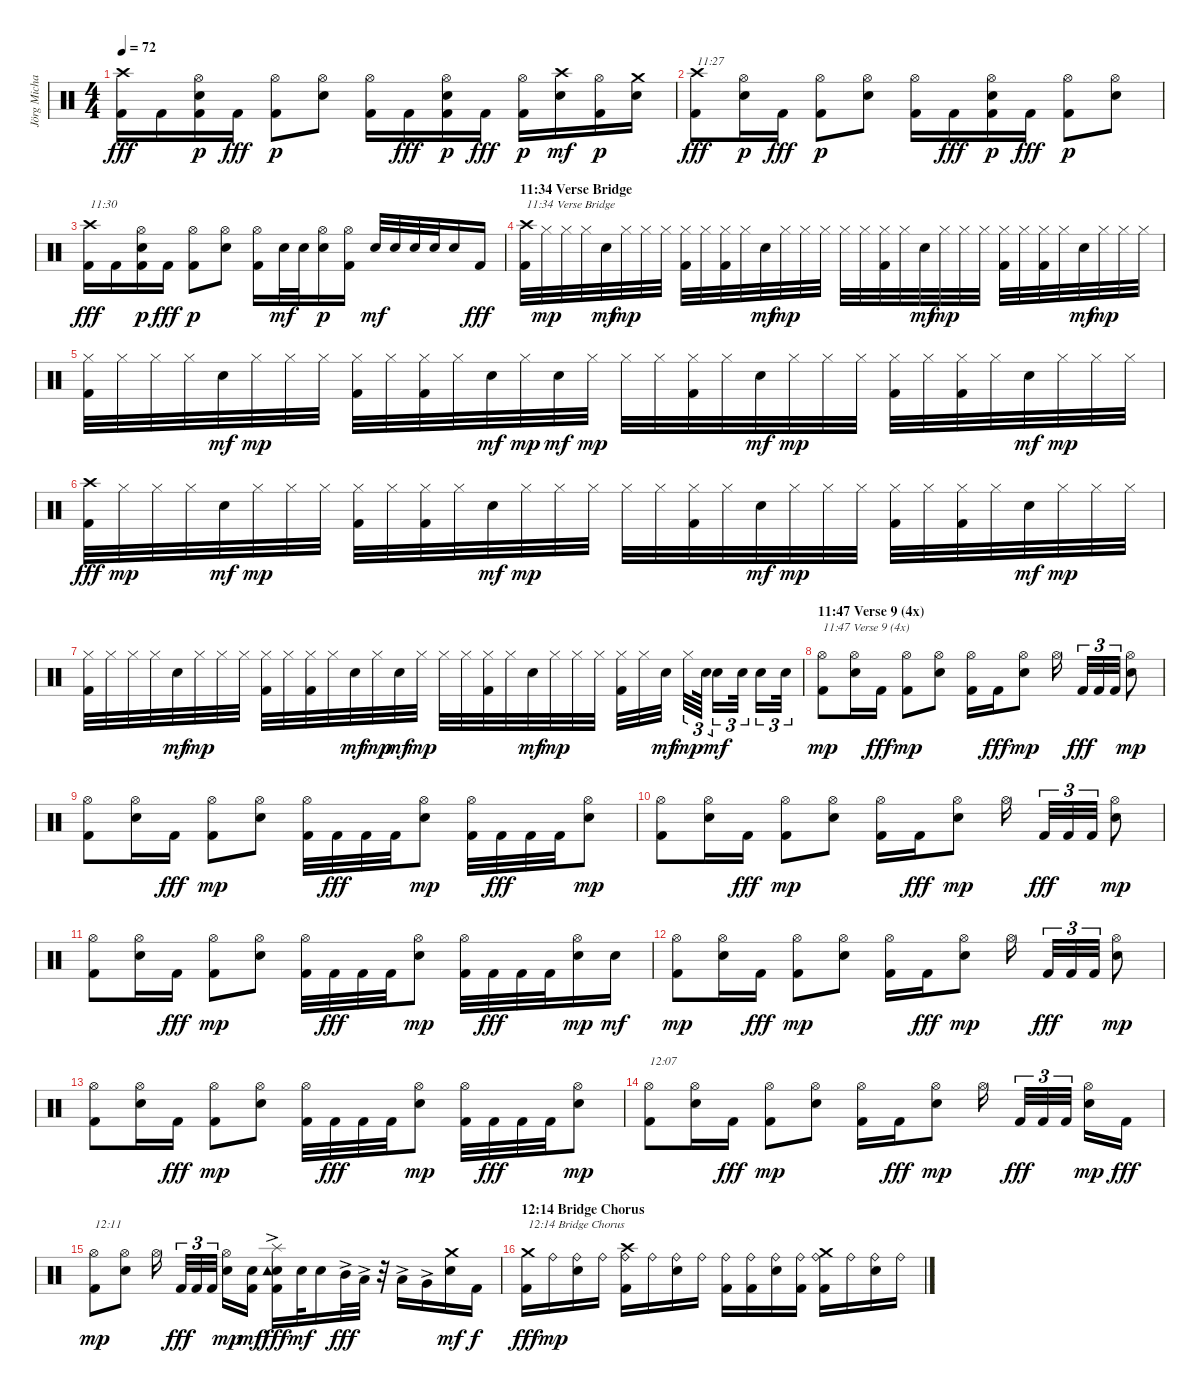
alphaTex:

\track ("Jörg Michael" "Jörg Micha") {instrument percussion}
\staff {score}
\articulation defaults
\ts (4 4)
\tempo 72
\clef neutral
\ks c
("Kick (hit) 2" "Crash high (hit)").16{dy fff} "Kick (hit) 2".16 ("Kick (hit) 2" "Snare (hit) 2" "Hi-Hat (open)").16{dy p} "Kick (hit) 2".16{dy fff} ("Kick (hit) 2" "Hi-Hat (open)").8{dy p} ("Snare (hit) 2" "Hi-Hat (open)").8 ("Kick (hit) 2" "Hi-Hat (open)").16 "Kick (hit) 2".16{dy fff} ("Kick (hit) 2" "Snare (hit) 2" "Hi-Hat (open)").16{dy p} "Kick (hit) 2".16{dy fff} ("Kick (hit) 2" "Hi-Hat (open)").16{dy p} ("Snare (hit) 2" "Crash high (hit)").16{dy mf} ("Kick (hit) 2" "Hi-Hat (open)").16{dy p} ("Snare (hit) 2" "Crash medium (hit)").16 |
("Kick (hit) 2" "Crash high (hit)").8{txt "11:27" dy fff} ("Snare (hit) 2" "Hi-Hat (open)").16{dy p} "Kick (hit) 2".16{dy fff} ("Kick (hit) 2" "Hi-Hat (open)").8{dy p} ("Snare (hit) 2" "Hi-Hat (open)").8 ("Kick (hit) 2" "Hi-Hat (open)").16 "Kick (hit) 2".16{dy fff} ("Kick (hit) 2" "Snare (hit) 2" "Hi-Hat (open)").16{dy p} "Kick (hit) 2".16{dy fff} ("Kick (hit) 2" "Hi-Hat (open)").8{dy p} ("Snare (hit) 2" "Hi-Hat (open)").8 |
("Kick (hit) 2" "Crash high (hit)").16{txt "11:30" dy fff} "Kick (hit) 2".16 ("Kick (hit) 2" "Snare (hit) 2" "Hi-Hat (open)").16{dy p} "Kick (hit) 2".16{dy fff} ("Kick (hit) 2" "Hi-Hat (open)").8{dy p} ("Snare (hit) 2" "Hi-Hat (open)").8 ("Kick (hit) 2" "Hi-Hat (open)").16 "Snare (hit) 2".32{dy mf} "Snare (hit) 2".32 ("Snare (hit) 2" "Hi-Hat (open)").16{dy p} ("Kick (hit) 2" "Hi-Hat (open)").16 "Snare (hit) 2".32{dy mf} "Snare (hit) 2".32 "Snare (hit) 2".32 "Snare (hit) 2".32 "Snare (hit) 2".16 "Kick (hit) 2".16{dy fff} |
\section ("" "11:34 Verse Bridge")
("Kick (hit) 2" "Crash high (hit)").32{txt "11:34 Verse Bridge"} "Hi-Hat (closed)".32{dy mp} "Hi-Hat (closed)".32 "Hi-Hat (closed)".32 "Snare (hit) 2".32{dy mf} "Hi-Hat (closed)".32{dy mp} "Hi-Hat (closed)".32 "Hi-Hat (closed)".32 ("Kick (hit) 2" "Hi-Hat (closed)").32 "Hi-Hat (closed)".32 ("Kick (hit) 2" "Hi-Hat (closed)").32 "Hi-Hat (closed)".32 "Snare (hit) 2".32{dy mf} "Hi-Hat (closed)".32{dy mp} "Hi-Hat (closed)".32 "Hi-Hat (closed)".32 "Hi-Hat (closed)".32 "Hi-Hat (closed)".32 ("Kick (hit) 2" "Hi-Hat (closed)").32 "Hi-Hat (closed)".32 "Snare (hit) 2".32{dy mf} "Hi-Hat (closed)".32{dy mp} "Hi-Hat (closed)".32 "Hi-Hat (closed)".32 ("Kick (hit) 2" "Hi-Hat (closed)").32 "Hi-Hat (closed)".32 ("Kick (hit) 2" "Hi-Hat (closed)").32 "Hi-Hat (closed)".32 "Snare (hit) 2".32{dy mf} "Hi-Hat (closed)".32{dy mp} "Hi-Hat (closed)".32 "Hi-Hat (closed)".32 |
("Kick (hit) 2" "Hi-Hat (closed)").32 "Hi-Hat (closed)".32 "Hi-Hat (closed)".32 "Hi-Hat (closed)".32 "Snare (hit) 2".32{dy mf} "Hi-Hat (closed)".32{dy mp} "Hi-Hat (closed)".32 "Hi-Hat (closed)".32 ("Kick (hit) 2" "Hi-Hat (closed)").32 "Hi-Hat (closed)".32 ("Kick (hit) 2" "Hi-Hat (closed)").32 "Hi-Hat (closed)".32 "Snare (hit) 2".32{dy mf} "Hi-Hat (closed)".32{dy mp} "Snare (hit) 2".32{dy mf} "Hi-Hat (closed)".32{dy mp} "Hi-Hat (closed)".32 "Hi-Hat (closed)".32 ("Kick (hit) 2" "Hi-Hat (closed)").32 "Hi-Hat (closed)".32 "Snare (hit) 2".32{dy mf} "Hi-Hat (closed)".32{dy mp} "Hi-Hat (closed)".32 "Hi-Hat (closed)".32 ("Kick (hit) 2" "Hi-Hat (closed)").32 "Hi-Hat (closed)".32 ("Kick (hit) 2" "Hi-Hat (closed)").32 "Hi-Hat (closed)".32 "Snare (hit) 2".32{dy mf} "Hi-Hat (closed)".32{dy mp} "Hi-Hat (closed)".32 "Hi-Hat (closed)".32 |
("Kick (hit) 2" "Crash high (hit)").32{dy fff} "Hi-Hat (closed)".32{dy mp} "Hi-Hat (closed)".32 "Hi-Hat (closed)".32 "Snare (hit) 2".32{dy mf} "Hi-Hat (closed)".32{dy mp} "Hi-Hat (closed)".32 "Hi-Hat (closed)".32 ("Kick (hit) 2" "Hi-Hat (closed)").32 "Hi-Hat (closed)".32 ("Kick (hit) 2" "Hi-Hat (closed)").32 "Hi-Hat (closed)".32 "Snare (hit) 2".32{dy mf} "Hi-Hat (closed)".32{dy mp} "Hi-Hat (closed)".32 "Hi-Hat (closed)".32 "Hi-Hat (closed)".32 "Hi-Hat (closed)".32 ("Kick (hit) 2" "Hi-Hat (closed)").32 "Hi-Hat (closed)".32 "Snare (hit) 2".32{dy mf} "Hi-Hat (closed)".32{dy mp} "Hi-Hat (closed)".32 "Hi-Hat (closed)".32 ("Kick (hit) 2" "Hi-Hat (closed)").32 "Hi-Hat (closed)".32 ("Kick (hit) 2" "Hi-Hat (closed)").32 "Hi-Hat (closed)".32 "Snare (hit) 2".32{dy mf} "Hi-Hat (closed)".32{dy mp} "Hi-Hat (closed)".32 "Hi-Hat (closed)".32 |
("Kick (hit) 2" "Hi-Hat (closed)").32 "Hi-Hat (closed)".32 "Hi-Hat (closed)".32 "Hi-Hat (closed)".32 "Snare (hit) 2".32{dy mf} "Hi-Hat (closed)".32{dy mp} "Hi-Hat (closed)".32 "Hi-Hat (closed)".32 ("Kick (hit) 2" "Hi-Hat (closed)").32 "Hi-Hat (closed)".32 ("Kick (hit) 2" "Hi-Hat (closed)").32 "Hi-Hat (closed)".32 "Snare (hit) 2".32{dy mf} "Hi-Hat (closed)".32{dy mp} "Snare (hit) 2".32{dy mf} "Hi-Hat (closed)".32{dy mp} "Hi-Hat (closed)".32 "Hi-Hat (closed)".32 ("Kick (hit) 2" "Hi-Hat (closed)").32 "Hi-Hat (closed)".32 "Snare (hit) 2".32{dy mf} "Hi-Hat (closed)".32{dy mp} "Hi-Hat (closed)".32 "Hi-Hat (closed)".32 ("Kick (hit) 2" "Hi-Hat (closed)").32 "Hi-Hat (closed)".32 "Snare (hit) 2".32{dy mf} "Hi-Hat (closed)".32{tu (3 2) dy mp} "Snare (hit) 2".64{tu (3 2)} "Snare (hit) 2".16{tu (3 2) dy mf} "Snare (hit) 2".32{tu (3 2)} "Snare (hit) 2".16{tu (3 2)} "Snare (hit) 2".32{tu (3 2)} |
\section ("" "11:47 Verse 9 (4x)")
("Kick (hit) 2" "Hi-Hat (open)").8{txt "11:47 Verse 9 (4x)" dy mp} ("Snare (hit) 2" "Hi-Hat (open)").16 "Kick (hit) 2".16{dy fff} ("Kick (hit) 2" "Hi-Hat (open)").8{dy mp} ("Snare (hit) 2" "Hi-Hat (open)").8 ("Kick (hit) 2" "Hi-Hat (open)").16 "Kick (hit) 2".16{dy fff} ("Snare (hit) 2" "Hi-Hat (open)").8{dy mp} "Hi-Hat (open)".16 "Kick (hit) 2".32{tu (3 2) dy fff} "Kick (hit) 2".32{tu (3 2)} "Kick (hit) 2".32{tu (3 2)} ("Snare (hit) 2" "Hi-Hat (open)").8{dy mp} |
("Kick (hit) 2" "Hi-Hat (open)").8 ("Snare (hit) 2" "Hi-Hat (open)").16 "Kick (hit) 2".16{dy fff} ("Kick (hit) 2" "Hi-Hat (open)").8{dy mp} ("Snare (hit) 2" "Hi-Hat (open)").8 ("Kick (hit) 2" "Hi-Hat (open)").32 "Kick (hit) 2".32{dy fff} "Kick (hit) 2".32 "Kick (hit) 2".32 ("Snare (hit) 2" "Hi-Hat (open)").8{dy mp} ("Kick (hit) 2" "Hi-Hat (open)").32 "Kick (hit) 2".32{dy fff} "Kick (hit) 2".32 "Kick (hit) 2".32 ("Snare (hit) 2" "Hi-Hat (open)").8{dy mp} |
("Kick (hit) 2" "Hi-Hat (open)").8 ("Snare (hit) 2" "Hi-Hat (open)").16 "Kick (hit) 2".16{dy fff} ("Kick (hit) 2" "Hi-Hat (open)").8{dy mp} ("Snare (hit) 2" "Hi-Hat (open)").8 ("Kick (hit) 2" "Hi-Hat (open)").16 "Kick (hit) 2".16{dy fff} ("Snare (hit) 2" "Hi-Hat (open)").8{dy mp} "Hi-Hat (open)".16 "Kick (hit) 2".32{tu (3 2) dy fff} "Kick (hit) 2".32{tu (3 2)} "Kick (hit) 2".32{tu (3 2)} ("Snare (hit) 2" "Hi-Hat (open)").8{dy mp} |
("Kick (hit) 2" "Hi-Hat (open)").8 ("Snare (hit) 2" "Hi-Hat (open)").16 "Kick (hit) 2".16{dy fff} ("Kick (hit) 2" "Hi-Hat (open)").8{dy mp} ("Snare (hit) 2" "Hi-Hat (open)").8 ("Kick (hit) 2" "Hi-Hat (open)").32 "Kick (hit) 2".32{dy fff} "Kick (hit) 2".32 "Kick (hit) 2".32 ("Snare (hit) 2" "Hi-Hat (open)").8{dy mp} ("Kick (hit) 2" "Hi-Hat (open)").32 "Kick (hit) 2".32{dy fff} "Kick (hit) 2".32 "Kick (hit) 2".32 ("Snare (hit) 2" "Hi-Hat (open)").16{dy mp} "Snare (hit) 2".16{dy mf} |
("Kick (hit) 2" "Hi-Hat (open)").8{dy mp} ("Snare (hit) 2" "Hi-Hat (open)").16 "Kick (hit) 2".16{dy fff} ("Kick (hit) 2" "Hi-Hat (open)").8{dy mp} ("Snare (hit) 2" "Hi-Hat (open)").8 ("Kick (hit) 2" "Hi-Hat (open)").16 "Kick (hit) 2".16{dy fff} ("Snare (hit) 2" "Hi-Hat (open)").8{dy mp} "Hi-Hat (open)".16 "Kick (hit) 2".32{tu (3 2) dy fff} "Kick (hit) 2".32{tu (3 2)} "Kick (hit) 2".32{tu (3 2)} ("Snare (hit) 2" "Hi-Hat (open)").8{dy mp} |
("Kick (hit) 2" "Hi-Hat (open)").8 ("Snare (hit) 2" "Hi-Hat (open)").16 "Kick (hit) 2".16{dy fff} ("Kick (hit) 2" "Hi-Hat (open)").8{dy mp} ("Snare (hit) 2" "Hi-Hat (open)").8 ("Kick (hit) 2" "Hi-Hat (open)").32 "Kick (hit) 2".32{dy fff} "Kick (hit) 2".32 "Kick (hit) 2".32 ("Snare (hit) 2" "Hi-Hat (open)").8{dy mp} ("Kick (hit) 2" "Hi-Hat (open)").32 "Kick (hit) 2".32{dy fff} "Kick (hit) 2".32 "Kick (hit) 2".32 ("Snare (hit) 2" "Hi-Hat (open)").8{dy mp} |
("Kick (hit) 2" "Hi-Hat (open)").8{txt "12:07"} ("Snare (hit) 2" "Hi-Hat (open)").16 "Kick (hit) 2".16{dy fff} ("Kick (hit) 2" "Hi-Hat (open)").8{dy mp} ("Snare (hit) 2" "Hi-Hat (open)").8 ("Kick (hit) 2" "Hi-Hat (open)").16 "Kick (hit) 2".16{dy fff} ("Snare (hit) 2" "Hi-Hat (open)").8{dy mp} "Hi-Hat (open)".16 "Kick (hit) 2".32{tu (3 2) dy fff} "Kick (hit) 2".32{tu (3 2)} "Kick (hit) 2".32{tu (3 2)} ("Snare (hit) 2" "Hi-Hat (open)").16{dy mp} "Kick (hit) 2".16{dy fff} |
("Kick (hit) 2" "Hi-Hat (open)").8{txt "12:11" dy mp} ("Snare (hit) 2" "Hi-Hat (open)").8 "Hi-Hat (open)".16 "Kick (hit) 2".32{tu (3 2) dy fff} "Kick (hit) 2".32{tu (3 2)} "Kick (hit) 2".32{tu (3 2)} ("Snare (hit) 2" "Hi-Hat (open)").16{dy mp} ("Kick (hit) 2" "Snare (hit) 2").16{dy mf} ("Kick (hit) 2" "Snare (hit) 2" "Tambourine (hit)" "Splash (hit)"{ac}).16{dy fff} "Snare (hit) 2".32{dy mf} "Snare (hit) 2".16 "Mid Tom (hit)"{ac}.32{dy fff} "Low Tom (hit)"{ac}.32 r.32 "Low Tom (hit)"{ac}.16 "Very Low Tom (hit)"{ac}.16 ("Snare (hit) 2" "Crash medium (hit)").16{dy mf} "Kick (hit) 2".16{dy f} |
\section ("" "12:14 Bridge Chorus")
("Kick (hit) 2" "Crash medium (hit)").16{txt "12:14 Bridge Chorus" dy fff} "Ride (bell)".16{dy mp} ("Snare (hit) 2" "Ride (bell)").16 "Ride (bell)".16 ("Kick (hit) 2" "Ride (bell)" "Crash high (hit)").16 "Ride (bell)".16 ("Snare (hit) 2" "Ride (bell)").16 "Ride (bell)".16 ("Kick (hit) 2" "Ride (bell)").16 ("Kick (hit) 2" "Ride (bell)").16 ("Snare (hit) 2" "Ride (bell)").16 ("Kick (hit) 2" "Ride (bell)").16 ("Kick (hit) 2" "Ride (bell)" "Crash medium (hit)").16 "Ride (bell)".16 ("Snare (hit) 2" "Ride (bell)").16 "Ride (bell)".16
